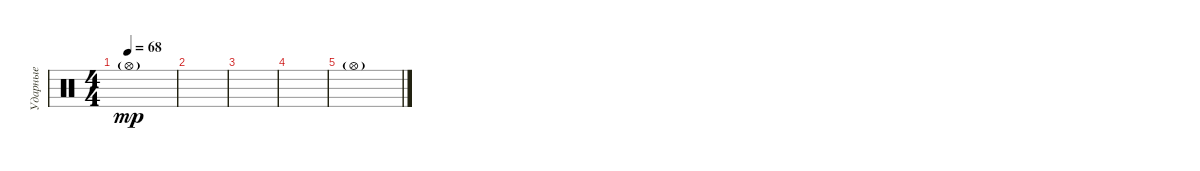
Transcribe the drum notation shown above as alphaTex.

\track ("Ударные" "Ударные") {instrument percussion}
\staff {score}
\articulation defaults
\ts (4 4)
\tempo 68
\clef neutral
\ks c "Hi-Hat (open)"{g}.1{dy mp}
|
|
|
|
"Hi-Hat (open)"{g}.1
